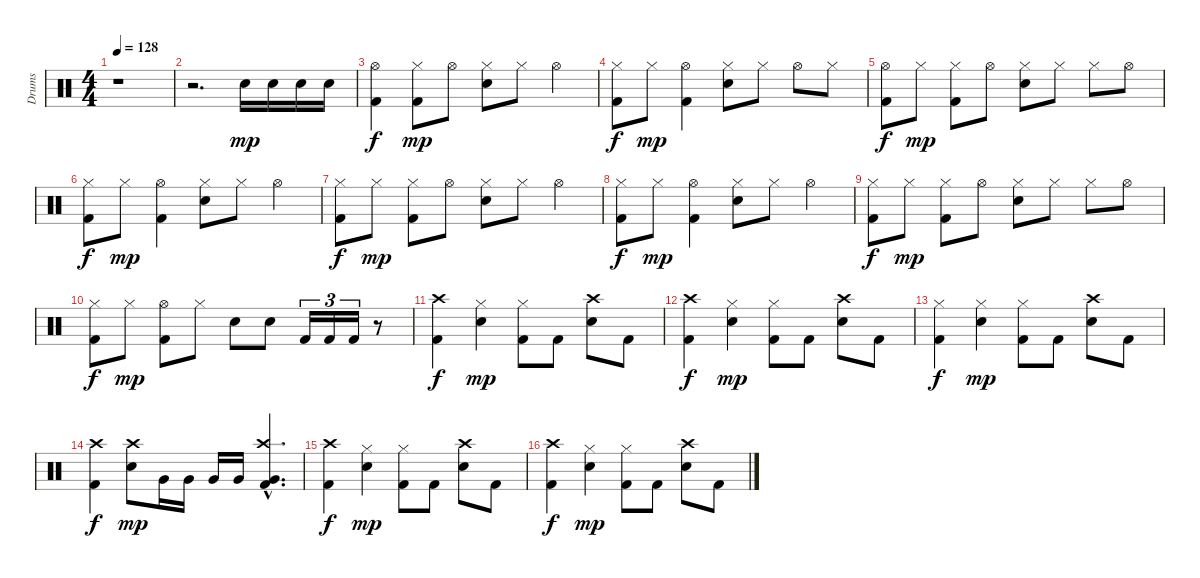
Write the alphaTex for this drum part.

\track ("Drums" "Drums") {instrument percussion}
\staff {score}
\articulation defaults
\ts (4 4)
\tempo 128
\clef neutral
\ks c
r.1{dy mp} |
r.2{d} "Electric Snare (hit)".16 "Electric Snare (hit)".16 "Electric Snare (hit)".16 "Electric Snare (hit)".16 |
("Kick (hit) 2" "Hi-Hat (open)").4{dy f} ("Kick (hit) 2" "Hi-Hat (closed)").8{dy mp} "Hi-Hat (open)".8 ("Electric Snare (hit)" "Hi-Hat (closed)").8 "Hi-Hat (closed)".8 "Hi-Hat (open)".4 |
("Kick (hit) 2" "Hi-Hat (closed)").8{dy f} "Hi-Hat (closed)".8{dy mp} ("Kick (hit) 2" "Hi-Hat (open)").4 ("Electric Snare (hit)" "Hi-Hat (closed)").8 "Hi-Hat (closed)".8 "Hi-Hat (open)".8 "Hi-Hat (closed)".8 |
("Kick (hit) 2" "Hi-Hat (open)").8{dy f} "Hi-Hat (closed)".8{dy mp} ("Kick (hit) 2" "Hi-Hat (closed)").8 "Hi-Hat (open)".8 ("Electric Snare (hit)" "Hi-Hat (closed)").8 "Hi-Hat (closed)".8 "Hi-Hat (closed)".8 "Hi-Hat (open)".8 |
("Kick (hit) 2" "Hi-Hat (closed)").8{dy f} "Hi-Hat (closed)".8{dy mp} ("Kick (hit) 2" "Hi-Hat (open)").4 ("Electric Snare (hit)" "Hi-Hat (closed)").8 "Hi-Hat (closed)".8 "Hi-Hat (open)".4 |
("Kick (hit) 2" "Hi-Hat (closed)").8{dy f} "Hi-Hat (closed)".8{dy mp} ("Kick (hit) 2" "Hi-Hat (closed)").8 "Hi-Hat (open)".8 ("Electric Snare (hit)" "Hi-Hat (closed)").8 "Hi-Hat (closed)".8 "Hi-Hat (open)".4 |
("Kick (hit) 2" "Hi-Hat (closed)").8{dy f} "Hi-Hat (closed)".8{dy mp} ("Kick (hit) 2" "Hi-Hat (open)").4 ("Electric Snare (hit)" "Hi-Hat (closed)").8 "Hi-Hat (closed)".8 "Hi-Hat (open)".4 |
("Kick (hit) 2" "Hi-Hat (closed)").8{dy f} "Hi-Hat (closed)".8{dy mp} ("Kick (hit) 2" "Hi-Hat (closed)").8 "Hi-Hat (open)".8 ("Electric Snare (hit)" "Hi-Hat (closed)").8 "Hi-Hat (closed)".8 "Hi-Hat (closed)".8 "Hi-Hat (open)".8 |
("Kick (hit) 2" "Hi-Hat (closed)").8{dy f} "Hi-Hat (closed)".8{dy mp} ("Kick (hit) 2" "Hi-Hat (open)").8 "Hi-Hat (closed)".8 "Electric Snare (hit)".8 "Electric Snare (hit)".8 "Kick (hit) 2".16{tu (3 2)} "Kick (hit) 2".16{tu (3 2)} "Kick (hit) 2".16{tu (3 2)} r.8 |
("Kick (hit) 2" "Crash high (hit)").4{dy f} ("Electric Snare (hit)" "Hi-Hat (closed)").4{dy mp} ("Kick (hit) 2" "Hi-Hat (closed)").8 "Kick (hit) 2".8 ("Electric Snare (hit)" "Crash high (hit)").8 "Kick (hit) 2".8 |
("Kick (hit) 2" "Crash high (hit)").4{dy f} ("Electric Snare (hit)" "Hi-Hat (closed)").4{dy mp} ("Kick (hit) 2" "Hi-Hat (closed)").8 "Kick (hit) 2".8 ("Electric Snare (hit)" "Crash high (hit)").8 "Kick (hit) 2".8 |
("Kick (hit) 2" "Hi-Hat (closed)").4{dy f} ("Electric Snare (hit)" "Hi-Hat (closed)").4{dy mp} ("Kick (hit) 2" "Hi-Hat (closed)").8 "Kick (hit) 2".8 ("Electric Snare (hit)" "Crash high (hit)").8 "Kick (hit) 2".8 |
("Kick (hit) 2" "Crash high (hit)").4{dy f} ("Electric Snare (hit)" "Crash high (hit)").8{dy mp} "Very Low Tom (hit)".16 "Very Low Tom (hit)".16 "Very Low Tom (hit)".16 "Very Low Tom (hit)".16 ("Kick (hit) 2"{hac} "Very Low Tom (hit)"{hac} "Crash high (hit)"{hac}).4{d} |
("Kick (hit) 2" "Crash high (hit)").4{dy f} ("Electric Snare (hit)" "Hi-Hat (closed)").4{dy mp} ("Kick (hit) 2" "Hi-Hat (closed)").8 "Kick (hit) 2".8 ("Electric Snare (hit)" "Crash high (hit)").8 "Kick (hit) 2".8 |
("Kick (hit) 2" "Crash high (hit)").4{dy f} ("Electric Snare (hit)" "Hi-Hat (closed)").4{dy mp} ("Kick (hit) 2" "Hi-Hat (closed)").8 "Kick (hit) 2".8 ("Electric Snare (hit)" "Crash high (hit)").8 "Kick (hit) 2".8
